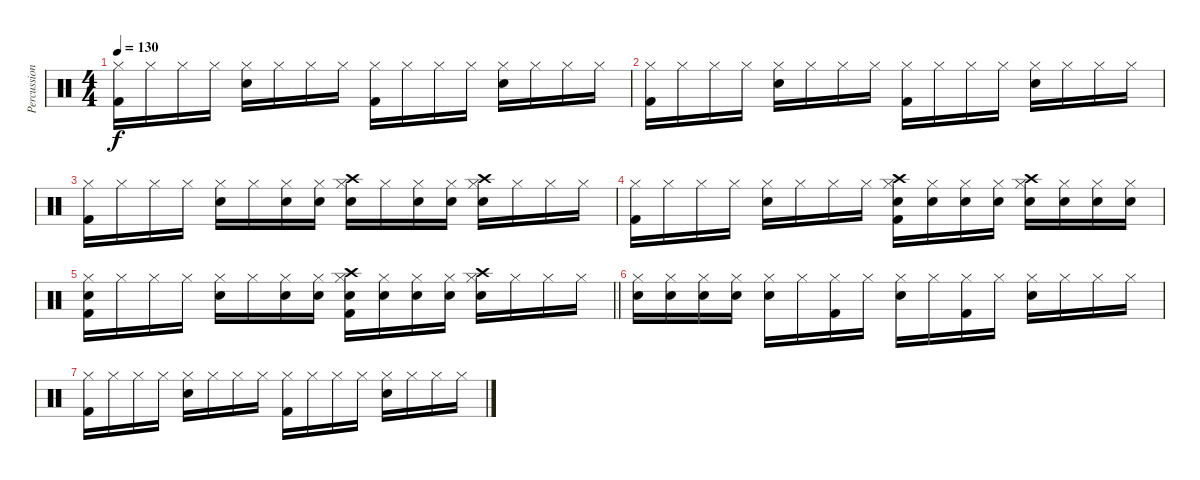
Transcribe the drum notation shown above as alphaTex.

\track ("Percussion" "Percussion") {instrument percussion}
\staff {score}
\articulation defaults
\ts (4 4)
\tempo 130
\clef neutral
\ks c
("Kick (hit) 2" "Hi-Hat (closed)").16{dy f} "Hi-Hat (closed)".16 "Hi-Hat (closed)".16 "Hi-Hat (closed)".16 ("Hi-Hat (closed)" "Snare (hit) 2").16 "Hi-Hat (closed)".16 "Hi-Hat (closed)".16 "Hi-Hat (closed)".16 ("Hi-Hat (closed)" "Kick (hit) 2").16 "Hi-Hat (closed)".16 "Hi-Hat (closed)".16 "Hi-Hat (closed)".16 ("Hi-Hat (closed)" "Snare (hit) 2").16 "Hi-Hat (closed)".16 "Hi-Hat (closed)".16 "Hi-Hat (closed)".16 |
("Hi-Hat (closed)" "Kick (hit) 2").16 "Hi-Hat (closed)".16 "Hi-Hat (closed)".16 "Hi-Hat (closed)".16 ("Snare (hit) 2" "Hi-Hat (closed)").16 "Hi-Hat (closed)".16 "Hi-Hat (closed)".16 "Hi-Hat (closed)".16 ("Hi-Hat (closed)" "Kick (hit) 2").16 "Hi-Hat (closed)".16 "Hi-Hat (closed)".16 "Hi-Hat (closed)".16 ("Hi-Hat (closed)" "Snare (hit) 2").16 "Hi-Hat (closed)".16 "Hi-Hat (closed)".16 "Hi-Hat (closed)".16 |
("Kick (hit) 2" "Hi-Hat (closed)").16 "Hi-Hat (closed)".16 "Hi-Hat (closed)".16 "Hi-Hat (closed)".16 ("Snare (hit) 2" "Hi-Hat (closed)").16 "Hi-Hat (closed)".16 ("Snare (hit) 2" "Hi-Hat (closed)").16 ("Hi-Hat (closed)" "Snare (hit) 2").16 ("Snare (hit) 2" "Crash high (hit)" "Hi-Hat (closed)").16 "Hi-Hat (closed)".16 ("Hi-Hat (closed)" "Snare (hit) 2").16 ("Hi-Hat (closed)" "Snare (hit) 2").16 ("Snare (hit) 2" "Crash high (hit)" "Hi-Hat (closed)").16 "Hi-Hat (closed)".16 "Hi-Hat (closed)".16 "Hi-Hat (closed)".16 |
("Hi-Hat (closed)" "Kick (hit) 2").16 "Hi-Hat (closed)".16 "Hi-Hat (closed)".16 "Hi-Hat (closed)".16 ("Snare (hit) 2" "Hi-Hat (closed)").16 "Hi-Hat (closed)".16 "Hi-Hat (closed)".16 "Hi-Hat (closed)".16 ("Crash high (hit)" "Snare (hit) 2" "Kick (hit) 2" "Hi-Hat (closed)").16 ("Snare (hit) 2" "Hi-Hat (closed)").16 ("Snare (hit) 2" "Hi-Hat (closed)").16 ("Hi-Hat (closed)" "Snare (hit) 2").16 ("Snare (hit) 2" "Crash high (hit)" "Hi-Hat (closed)").16 ("Snare (hit) 2" "Hi-Hat (closed)").16 ("Hi-Hat (closed)" "Snare (hit) 2").16 ("Snare (hit) 2" "Hi-Hat (closed)").16 |
\barLineRight lightlight
("Hi-Hat (closed)" "Kick (hit) 2" "Snare (hit) 2").16 "Hi-Hat (closed)".16 "Hi-Hat (closed)".16 "Hi-Hat (closed)".16 ("Hi-Hat (closed)" "Snare (hit) 2").16 "Hi-Hat (closed)".16 ("Snare (hit) 2" "Hi-Hat (closed)").16 ("Hi-Hat (closed)" "Snare (hit) 2").16 ("Hi-Hat (closed)" "Crash high (hit)" "Snare (hit) 2" "Kick (hit) 2").16 ("Snare (hit) 2" "Hi-Hat (closed)").16 ("Snare (hit) 2" "Hi-Hat (closed)").16 ("Hi-Hat (closed)" "Snare (hit) 2").16 ("Hi-Hat (closed)" "Snare (hit) 2" "Crash high (hit)").16 "Hi-Hat (closed)".16 "Hi-Hat (closed)".16 "Hi-Hat (closed)".16 |
("Hi-Hat (closed)" "Snare (hit) 2").16 ("Hi-Hat (closed)" "Snare (hit) 2").16 ("Hi-Hat (closed)" "Snare (hit) 2").16 ("Hi-Hat (closed)" "Snare (hit) 2").16 ("Hi-Hat (closed)" "Snare (hit) 2").16 "Hi-Hat (closed)".16 ("Hi-Hat (closed)" "Kick (hit) 2").16 "Hi-Hat (closed)".16 ("Hi-Hat (closed)" "Snare (hit) 2").16 "Hi-Hat (closed)".16 ("Hi-Hat (closed)" "Kick (hit) 2").16 "Hi-Hat (closed)".16 ("Hi-Hat (closed)" "Snare (hit) 2").16 "Hi-Hat (closed)".16 "Hi-Hat (closed)".16 "Hi-Hat (closed)".16 |
("Hi-Hat (closed)" "Kick (hit) 2").16 "Hi-Hat (closed)".16 "Hi-Hat (closed)".16 "Hi-Hat (closed)".16 ("Hi-Hat (closed)" "Snare (hit) 2").16 "Hi-Hat (closed)".16 "Hi-Hat (closed)".16 "Hi-Hat (closed)".16 ("Hi-Hat (closed)" "Kick (hit) 2").16 "Hi-Hat (closed)".16 "Hi-Hat (closed)".16 "Hi-Hat (closed)".16 ("Hi-Hat (closed)" "Snare (hit) 2").16 "Hi-Hat (closed)".16 "Hi-Hat (closed)".16 "Hi-Hat (closed)".16
